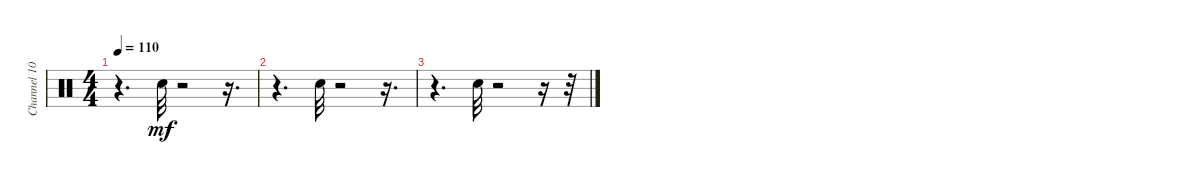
\track ("Channel 10" "Channel 10") {instrument percussion}
\staff {score}
\articulation defaults
\ts (4 4)
\tempo 110
\clef neutral
\ks c
r.4{d dy mf} "Electric Snare (hit)".32 r.2 r.16{d} |
r.4{d} "Electric Snare (hit)".32 r.2 r.16{d} |
r.4{d} "Electric Snare (hit)".32 r.2 r.16 r.32
